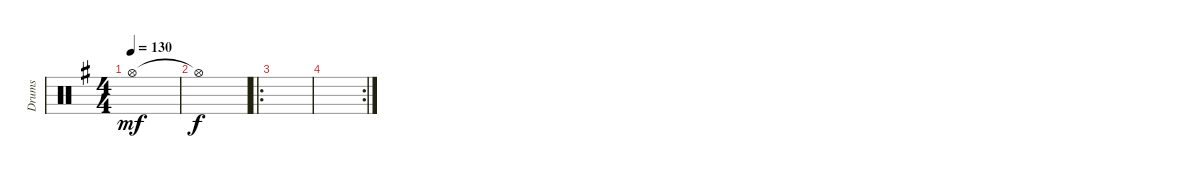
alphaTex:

\track ("Drums" "Drums") {instrument percussion}
\staff {score}
\articulation defaults
\ts (4 4)
\tempo 130
\clef neutral
\ks g "Hi-Hat (open)".1{dy mf}
|
"Hi-Hat (open)"{t}.1{dy f} |
\ro
|
\rc 2
